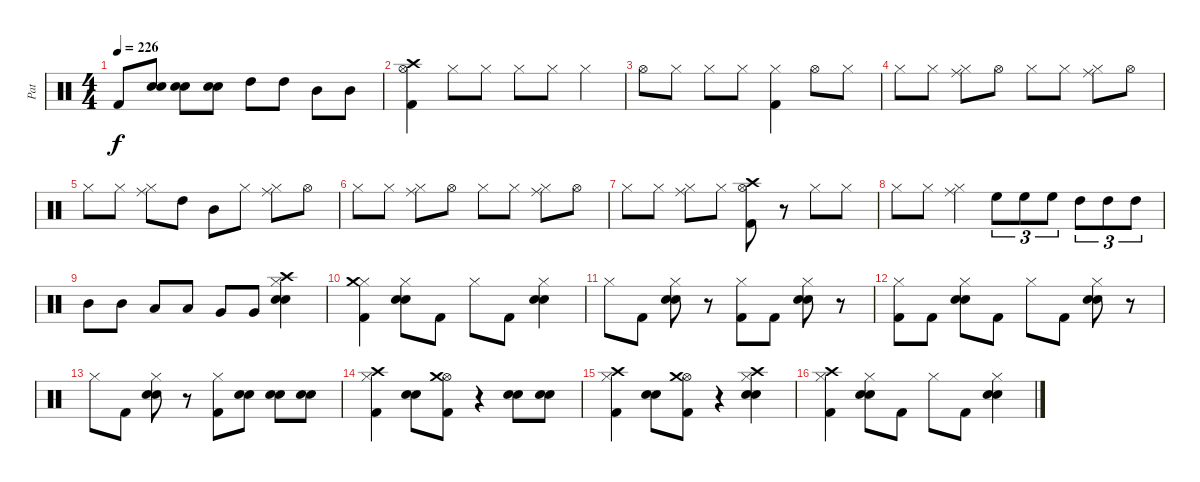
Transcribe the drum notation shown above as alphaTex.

\track ("Pat" "Pat") {instrument percussion}
\staff {score}
\articulation defaults
\ts (4 4)
\tempo 226
\clef neutral
\ks c "Kick (hit) 2".8{dy f}
("Snare (hit) 2" "Electric Snare (hit)").8 ("Snare (hit) 2" "Electric Snare (hit)").8 ("Snare (hit) 2" "Electric Snare (hit)").8 "High Tom (hit)".8 "High Tom (hit)".8 "Mid Tom (hit)".8 "Mid Tom (hit)".8 |
("Hi-Hat (open)" "Crash high (hit)" "Kick (hit) 2").4 "Hi-Hat (closed)".8 "Hi-Hat (closed)".8 "Hi-Hat (closed)".8 "Hi-Hat (closed)".8 "Hi-Hat (closed)".4 |
"Hi-Hat (open)".8 "Hi-Hat (closed)".8 "Hi-Hat (closed)".8 "Hi-Hat (closed)".8 ("Hi-Hat (closed)" "Kick (hit) 2").4 "Hi-Hat (open)".8 "Hi-Hat (closed)".8 |
"Hi-Hat (closed)".8 "Hi-Hat (closed)".8 ("Hi-Hat (closed)" "Ride (middle)").8 "Hi-Hat (open)".8 "Hi-Hat (closed)".8 "Hi-Hat (closed)".8 ("Hi-Hat (closed)" "Ride (middle)").8 "Hi-Hat (open)".8 |
"Hi-Hat (closed)".8 "Hi-Hat (closed)".8 ("Hi-Hat (closed)" "Ride (middle)").8 "High Tom (hit)".8 "Mid Tom (hit)".8 "Hi-Hat (closed)".8 ("Hi-Hat (closed)" "Ride (middle)").8 "Hi-Hat (open)".8 |
"Hi-Hat (closed)".8 "Hi-Hat (closed)".8 ("Hi-Hat (closed)" "Ride (middle)").8 "Hi-Hat (open)".8 "Hi-Hat (closed)".8 "Hi-Hat (closed)".8 ("Hi-Hat (closed)" "Ride (middle)").8 "Hi-Hat (open)".8 |
"Hi-Hat (closed)".8 "Hi-Hat (closed)".8 ("Hi-Hat (closed)" "Ride (middle)").8 "Hi-Hat (closed)".8 ("Hi-Hat (open)" "Crash high (hit)" "Kick (hit) 2").8 r.8 "Hi-Hat (closed)".8 "Hi-Hat (closed)".8 |
"Hi-Hat (closed)".8 "Hi-Hat (closed)".8 ("Hi-Hat (closed)" "Ride (middle)").4 "High Floor Tom (hit)".8{tu (3 2)} "High Floor Tom (hit)".8{tu (3 2)} "High Floor Tom (hit)".8{tu (3 2)} "High Tom (hit)".8{tu (3 2)} "High Tom (hit)".8{tu (3 2)} "High Tom (hit)".8{tu (3 2)} |
"Mid Tom (hit)".8 "Mid Tom (hit)".8 "Low Tom (hit)".8 "Low Tom (hit)".8 "Very Low Tom (hit)".8 "Very Low Tom (hit)".8 ("Hi-Hat (closed)" "Crash high (hit)" "Snare (hit) 2" "Electric Snare (hit)").4 |
("Hi-Hat (closed)" "Crash medium (hit)" "Kick (hit) 2").4 ("Hi-Hat (closed)" "Snare (hit) 2" "Electric Snare (hit)").8 "Kick (hit) 2".8 "Hi-Hat (closed)".8 "Kick (hit) 2".8 ("Hi-Hat (closed)" "Snare (hit) 2" "Electric Snare (hit)").4 |
"Hi-Hat (closed)".8 "Kick (hit) 2".8 ("Hi-Hat (closed)" "Snare (hit) 2" "Electric Snare (hit)").8 r.8 ("Hi-Hat (closed)" "Kick (hit) 2").8 "Kick (hit) 2".8 ("Hi-Hat (closed)" "Snare (hit) 2" "Electric Snare (hit)").8 r.8 |
("Hi-Hat (closed)" "Kick (hit) 2").8 "Kick (hit) 2".8 ("Hi-Hat (closed)" "Snare (hit) 2" "Electric Snare (hit)").8 "Kick (hit) 2".8 "Hi-Hat (closed)".8 "Kick (hit) 2".8 ("Hi-Hat (closed)" "Snare (hit) 2" "Electric Snare (hit)").8 r.8 |
"Hi-Hat (closed)".8 "Kick (hit) 2".8 ("Hi-Hat (closed)" "Snare (hit) 2" "Electric Snare (hit)").8 r.8 ("Hi-Hat (closed)" "Kick (hit) 2").8 ("Snare (hit) 2" "Electric Snare (hit)").8 ("Snare (hit) 2" "Electric Snare (hit)").8 ("Snare (hit) 2" "Electric Snare (hit)").8 |
("Hi-Hat (closed)" "Crash high (hit)" "Kick (hit) 2").4 ("Snare (hit) 2" "Electric Snare (hit)").8 ("Hi-Hat (open)" "Crash medium (hit)" "Kick (hit) 2").8 r.4 ("Snare (hit) 2" "Electric Snare (hit)").8 ("Snare (hit) 2" "Electric Snare (hit)").8 |
("Hi-Hat (closed)" "Crash high (hit)" "Kick (hit) 2").4 ("Snare (hit) 2" "Electric Snare (hit)").8 ("Hi-Hat (open)" "Crash medium (hit)" "Kick (hit) 2").8 r.4 ("Hi-Hat (closed)" "Crash high (hit)" "Snare (hit) 2" "Electric Snare (hit)").4 |
("Hi-Hat (closed)" "Crash high (hit)" "Kick (hit) 2").4 ("Hi-Hat (closed)" "Snare (hit) 2" "Electric Snare (hit)").8 "Kick (hit) 2".8 "Hi-Hat (closed)".8 "Kick (hit) 2".8 ("Hi-Hat (closed)" "Snare (hit) 2" "Electric Snare (hit)").4
